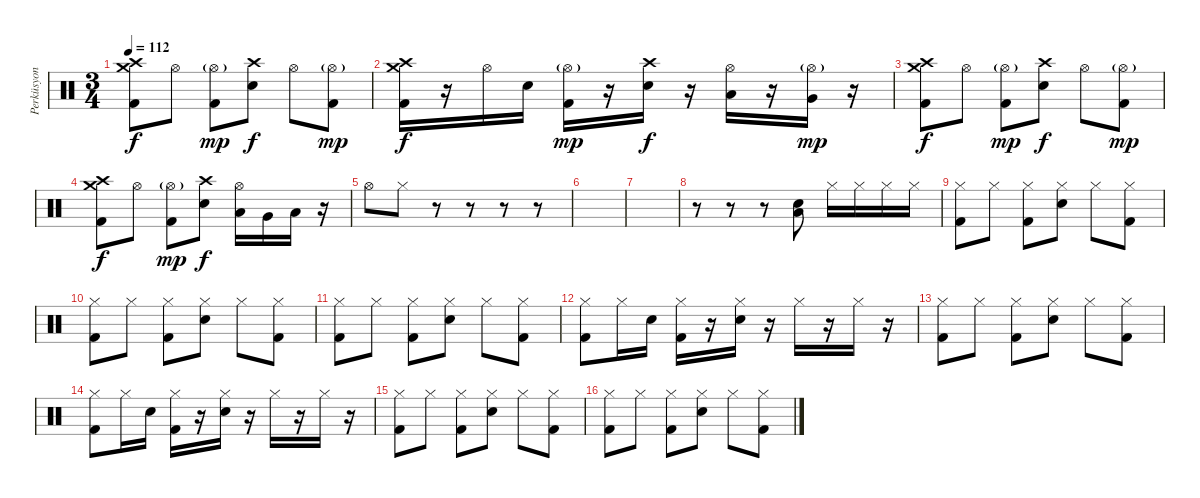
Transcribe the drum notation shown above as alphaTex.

\track ("Perküsyon" "Perküsyon") {instrument percussion}
\staff {score}
\articulation defaults
\ts (3 4)
\tempo 112
\clef neutral
\ks c
("Crash high (hit)" "Crash medium (hit)" "Kick (hit) 2").8{dy f} "Hi-Hat (open)".8 ("Hi-Hat (open)"{g} "Kick (hit) 2").8{dy mp} ("Crash high (hit)" "Electric Snare (hit)").8{dy f} "Hi-Hat (open)".8 ("Hi-Hat (open)"{g} "Kick (hit) 2").8{dy mp} |
("Crash high (hit)" "Crash medium (hit)" "Kick (hit) 2").16{dy f} r.16 "Hi-Hat (open)".16 "Electric Snare (hit)".16 ("Hi-Hat (open)"{g} "Kick (hit) 2").16{dy mp} r.16 ("Crash high (hit)" "Electric Snare (hit)").16{dy f} r.16 ("Hi-Hat (open)" "Low Tom (hit)").16 r.16 ("Hi-Hat (open)"{g} "Very Low Tom (hit)").16{dy mp} r.16 |
("Crash high (hit)" "Crash medium (hit)" "Kick (hit) 2").8{dy f} "Hi-Hat (open)".8 ("Hi-Hat (open)"{g} "Kick (hit) 2").8{dy mp} ("Crash high (hit)" "Electric Snare (hit)").8{dy f} "Hi-Hat (open)".8 ("Hi-Hat (open)"{g} "Kick (hit) 2").8{dy mp} |
("Crash high (hit)" "Crash medium (hit)" "Kick (hit) 2").8{dy f} "Hi-Hat (open)".8 ("Hi-Hat (open)"{g} "Kick (hit) 2").8{dy mp} ("Crash high (hit)" "Electric Snare (hit)").8{dy f} ("Hi-Hat (open)" "Low Tom (hit)").16 "Very Low Tom (hit)".16 "Low Floor Tom (hit)".16 r.16 |
"Hi-Hat (open)".8 "Hi-Hat (closed)".8 r.8 r.8 r.8 r.8 |
|
|
r.8 r.8 r.8 ("Low Tom (hit)" "Electric Snare (hit)").8 "Hi-Hat (closed)".16 "Hi-Hat (closed)".16 "Hi-Hat (closed)".16 "Hi-Hat (closed)".16 |
("Hi-Hat (closed)" "Kick (hit) 2").8 "Hi-Hat (closed)".8 ("Hi-Hat (closed)" "Kick (hit) 2").8 ("Hi-Hat (closed)" "Electric Snare (hit)").8 "Hi-Hat (closed)".8 ("Hi-Hat (closed)" "Kick (hit) 2").8 |
("Hi-Hat (closed)" "Kick (hit) 2").8 "Hi-Hat (closed)".8 ("Hi-Hat (closed)" "Kick (hit) 2").8 ("Hi-Hat (closed)" "Electric Snare (hit)").8 "Hi-Hat (closed)".8 ("Hi-Hat (closed)" "Kick (hit) 2").8 |
("Hi-Hat (closed)" "Kick (hit) 2").8 "Hi-Hat (closed)".8 ("Hi-Hat (closed)" "Kick (hit) 2").8 ("Hi-Hat (closed)" "Electric Snare (hit)").8 "Hi-Hat (closed)".8 ("Hi-Hat (closed)" "Kick (hit) 2").8 |
("Hi-Hat (closed)" "Kick (hit) 2").8 "Hi-Hat (closed)".16 "Electric Snare (hit)".16 ("Hi-Hat (closed)" "Kick (hit) 2").16 r.16 ("Hi-Hat (closed)" "Electric Snare (hit)").16 r.16 "Hi-Hat (closed)".16 r.16 "Hi-Hat (closed)".16 r.16 |
("Hi-Hat (closed)" "Kick (hit) 2").8 "Hi-Hat (closed)".8 ("Hi-Hat (closed)" "Kick (hit) 2").8 ("Hi-Hat (closed)" "Electric Snare (hit)").8 "Hi-Hat (closed)".8 ("Hi-Hat (closed)" "Kick (hit) 2").8 |
("Hi-Hat (closed)" "Kick (hit) 2").8 "Hi-Hat (closed)".16 "Electric Snare (hit)".16 ("Hi-Hat (closed)" "Kick (hit) 2").16 r.16 ("Hi-Hat (closed)" "Electric Snare (hit)").16 r.16 "Hi-Hat (closed)".16 r.16 "Hi-Hat (closed)".16 r.16 |
("Hi-Hat (closed)" "Kick (hit) 2").8 "Hi-Hat (closed)".8 ("Hi-Hat (closed)" "Kick (hit) 2").8 ("Hi-Hat (closed)" "Electric Snare (hit)").8 "Hi-Hat (closed)".8 ("Hi-Hat (closed)" "Kick (hit) 2").8 |
("Hi-Hat (closed)" "Kick (hit) 2").8 "Hi-Hat (closed)".8 ("Hi-Hat (closed)" "Kick (hit) 2").8 ("Hi-Hat (closed)" "Electric Snare (hit)").8 "Hi-Hat (closed)".8 ("Hi-Hat (closed)" "Kick (hit) 2").8
